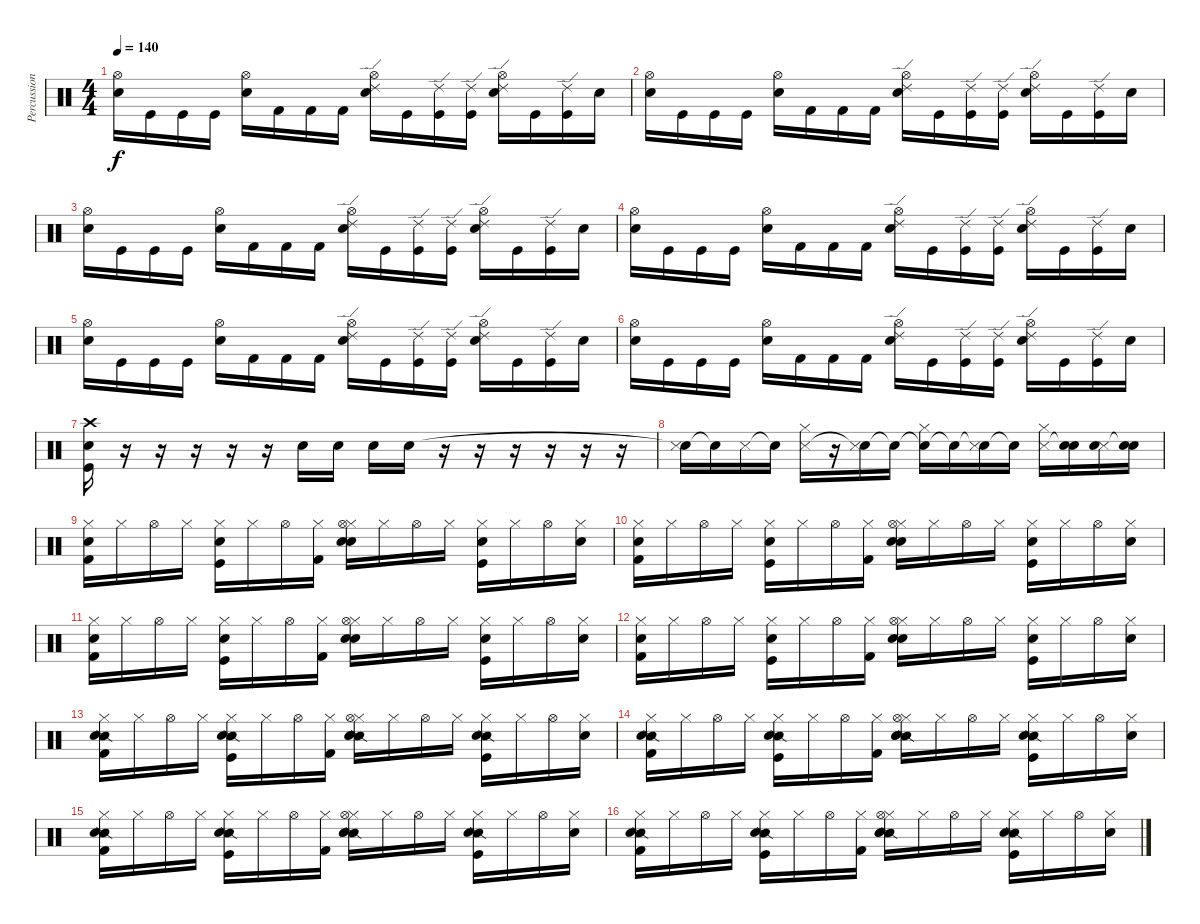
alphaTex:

\track ("Percussion" "Percussion") {instrument percussion}
\staff {score}
\articulation defaults
\ts (4 4)
\tempo 140
\clef neutral
\ks c
("Hi-Hat (open)" "Snare (hit) 2").16{dy f} "Kick (hit)".16 "Kick (hit)".16 "Kick (hit)".16 ("Hi-Hat (open)" "Snare (hit) 2").16 "Kick (hit) 2".16 "Kick (hit) 2".16 "Kick (hit) 2".16 ("Hi-Hat (open)" "Snare (hit) 2" "Ride (edge) 2").16 "Kick (hit)".16 ("Kick (hit)" "Ride (edge) 2").16 ("Kick (hit)" "Ride (edge) 2").16 ("Hi-Hat (open)" "Snare (hit) 2" "Ride (edge) 2").16 "Kick (hit)".16 ("Kick (hit)" "Ride (edge) 2").16 "Snare (hit) 2".16 |
("Hi-Hat (open)" "Snare (hit) 2").16 "Kick (hit)".16 "Kick (hit)".16 "Kick (hit)".16 ("Hi-Hat (open)" "Snare (hit) 2").16 "Kick (hit) 2".16 "Kick (hit) 2".16 "Kick (hit) 2".16 ("Hi-Hat (open)" "Snare (hit) 2" "Ride (edge) 2").16 "Kick (hit)".16 ("Kick (hit)" "Ride (edge) 2").16 ("Kick (hit)" "Ride (edge) 2").16 ("Hi-Hat (open)" "Snare (hit) 2" "Ride (edge) 2").16 "Kick (hit)".16 ("Kick (hit)" "Ride (edge) 2").16 "Snare (hit) 2".16 |
("Hi-Hat (open)" "Snare (hit) 2").16 "Kick (hit)".16 "Kick (hit)".16 "Kick (hit)".16 ("Hi-Hat (open)" "Snare (hit) 2").16 "Kick (hit) 2".16 "Kick (hit) 2".16 "Kick (hit) 2".16 ("Hi-Hat (open)" "Snare (hit) 2" "Ride (edge) 2").16 "Kick (hit)".16 ("Kick (hit)" "Ride (edge) 2").16 ("Kick (hit)" "Ride (edge) 2").16 ("Hi-Hat (open)" "Snare (hit) 2" "Ride (edge) 2").16 "Kick (hit)".16 ("Kick (hit)" "Ride (edge) 2").16 "Snare (hit) 2".16 |
("Hi-Hat (open)" "Snare (hit) 2").16 "Kick (hit)".16 "Kick (hit)".16 "Kick (hit)".16 ("Hi-Hat (open)" "Snare (hit) 2").16 "Kick (hit) 2".16 "Kick (hit) 2".16 "Kick (hit) 2".16 ("Hi-Hat (open)" "Snare (hit) 2" "Ride (edge) 2").16 "Kick (hit)".16 ("Kick (hit)" "Ride (edge) 2").16 ("Kick (hit)" "Ride (edge) 2").16 ("Hi-Hat (open)" "Snare (hit) 2" "Ride (edge) 2").16 "Kick (hit)".16 ("Kick (hit)" "Ride (edge) 2").16 "Snare (hit) 2".16 |
("Hi-Hat (open)" "Snare (hit) 2").16 "Kick (hit)".16 "Kick (hit)".16 "Kick (hit)".16 ("Hi-Hat (open)" "Snare (hit) 2").16 "Kick (hit) 2".16 "Kick (hit) 2".16 "Kick (hit) 2".16 ("Hi-Hat (open)" "Snare (hit) 2" "Ride (edge) 2").16 "Kick (hit)".16 ("Kick (hit)" "Ride (edge) 2").16 ("Kick (hit)" "Ride (edge) 2").16 ("Hi-Hat (open)" "Snare (hit) 2" "Ride (edge) 2").16 "Kick (hit)".16 ("Kick (hit)" "Ride (edge) 2").16 "Snare (hit) 2".16 |
("Hi-Hat (open)" "Snare (hit) 2").16 "Kick (hit)".16 "Kick (hit)".16 "Kick (hit)".16 ("Hi-Hat (open)" "Snare (hit) 2").16 "Kick (hit) 2".16 "Kick (hit) 2".16 "Kick (hit) 2".16 ("Hi-Hat (open)" "Snare (hit) 2" "Ride (edge) 2").16 "Kick (hit)".16 ("Kick (hit)" "Ride (edge) 2").16 ("Kick (hit)" "Ride (edge) 2").16 ("Hi-Hat (open)" "Snare (hit) 2" "Ride (edge) 2").16 "Kick (hit)".16 ("Kick (hit)" "Ride (edge) 2").16 "Snare (hit) 2".16 |
("Crash high (hit)" "Kick (hit)" "Snare (hit) 2").16 r.16 r.16 r.16 r.16 r.16 "Snare (hit) 2".16 "Snare (hit) 2".16 "Snare (hit) 2".16 "Snare (hit) 2".16 r.16 r.16 r.16 r.16 r.16 r.16 |
("Snare (hit)"{t} "Snare (side stick) 3").16 "Snare (hit)"{t}.16 "Snare (side stick) 3".16 "Snare (hit)"{t}.16 ("Snare (side stick) 3" "Hi-Hat (closed)").16 r.16 ("Snare (hit)"{t} "Snare (side stick) 3").16 "Snare (hit)"{t}.16 ("Snare (hit)"{t} "Hi-Hat (closed)").16 "Snare (hit)"{t}.16 ("Snare (hit)"{t} "Snare (side stick) 3").16 "Snare (hit)"{t}.16 ("Snare (side stick) 3" "Hi-Hat (closed)").16 ("Snare (hit)"{t} "Snare (hit) 2").16 ("Snare (side stick) 3" "Snare (hit) 2").16 ("Snare (hit)"{t} "Snare (hit) 2").16 |
("Hi-Hat (closed)" "Snare (hit)" "Kick (hit) 2").16 "Hi-Hat (closed)".16 "Hi-Hat (open)".16 "Hi-Hat (closed)".16 ("Hi-Hat (closed)" "Snare (hit) 2" "Kick (hit)").16 "Hi-Hat (closed)".16 "Hi-Hat (open)".16 ("Hi-Hat (closed)" "Kick (hit) 2").16 ("Hi-Hat (closed)" "Snare (hit) 2" "Snare (hit) 2" "Hi-Hat (open)").16 "Hi-Hat (closed)".16 "Hi-Hat (open)".16 "Hi-Hat (closed)".16 ("Hi-Hat (closed)" "Snare (hit) 2" "Kick (hit)").16 "Hi-Hat (closed)".16 "Hi-Hat (open)".16 ("Hi-Hat (closed)" "Snare (hit) 2").16 |
("Hi-Hat (closed)" "Snare (hit)" "Kick (hit) 2").16 "Hi-Hat (closed)".16 "Hi-Hat (open)".16 "Hi-Hat (closed)".16 ("Hi-Hat (closed)" "Snare (hit) 2" "Kick (hit)").16 "Hi-Hat (closed)".16 "Hi-Hat (open)".16 ("Hi-Hat (closed)" "Kick (hit) 2").16 ("Hi-Hat (closed)" "Snare (hit) 2" "Snare (hit) 2" "Hi-Hat (open)").16 "Hi-Hat (closed)".16 "Hi-Hat (open)".16 "Hi-Hat (closed)".16 ("Hi-Hat (closed)" "Snare (hit) 2" "Kick (hit)").16 "Hi-Hat (closed)".16 "Hi-Hat (open)".16 ("Hi-Hat (closed)" "Snare (hit) 2").16 |
("Hi-Hat (closed)" "Snare (hit)" "Kick (hit) 2").16 "Hi-Hat (closed)".16 "Hi-Hat (open)".16 "Hi-Hat (closed)".16 ("Hi-Hat (closed)" "Snare (hit) 2" "Kick (hit)").16 "Hi-Hat (closed)".16 "Hi-Hat (open)".16 ("Hi-Hat (closed)" "Kick (hit) 2").16 ("Hi-Hat (closed)" "Snare (hit) 2" "Snare (hit) 2" "Hi-Hat (open)").16 "Hi-Hat (closed)".16 "Hi-Hat (open)".16 "Hi-Hat (closed)".16 ("Hi-Hat (closed)" "Snare (hit) 2" "Kick (hit)").16 "Hi-Hat (closed)".16 "Hi-Hat (open)".16 ("Hi-Hat (closed)" "Snare (hit) 2").16 |
("Hi-Hat (closed)" "Snare (hit)" "Kick (hit) 2").16 "Hi-Hat (closed)".16 "Hi-Hat (open)".16 "Hi-Hat (closed)".16 ("Hi-Hat (closed)" "Snare (hit) 2" "Kick (hit)").16 "Hi-Hat (closed)".16 "Hi-Hat (open)".16 ("Hi-Hat (closed)" "Kick (hit) 2").16 ("Hi-Hat (closed)" "Snare (hit) 2" "Snare (hit) 2" "Hi-Hat (open)").16 "Hi-Hat (closed)".16 "Hi-Hat (open)".16 "Hi-Hat (closed)".16 ("Hi-Hat (closed)" "Snare (hit) 2" "Kick (hit)").16 "Hi-Hat (closed)".16 "Hi-Hat (open)".16 ("Hi-Hat (closed)" "Snare (hit) 2").16 |
("Hi-Hat (closed)" "Snare (side stick) 2" "Snare (hit)" "Kick (hit) 2").16 "Hi-Hat (closed)".16 "Hi-Hat (open)".16 "Hi-Hat (closed)".16 ("Hi-Hat (closed)" "Snare (side stick) 2" "Snare (hit) 2" "Kick (hit)").16 "Hi-Hat (closed)".16 "Hi-Hat (open)".16 ("Hi-Hat (closed)" "Kick (hit) 2").16 ("Hi-Hat (closed)" "Snare (side stick) 2" "Snare (hit) 2" "Snare (hit) 2" "Hi-Hat (open)").16 "Hi-Hat (closed)".16 "Hi-Hat (open)".16 "Hi-Hat (closed)".16 ("Hi-Hat (closed)" "Snare (side stick) 2" "Snare (hit) 2" "Kick (hit)").16 "Hi-Hat (closed)".16 "Hi-Hat (open)".16 ("Hi-Hat (closed)" "Snare (hit) 2").16 |
("Hi-Hat (closed)" "Snare (side stick) 2" "Snare (hit)" "Kick (hit) 2").16 "Hi-Hat (closed)".16 "Hi-Hat (open)".16 "Hi-Hat (closed)".16 ("Hi-Hat (closed)" "Snare (side stick) 2" "Snare (hit) 2" "Kick (hit)").16 "Hi-Hat (closed)".16 "Hi-Hat (open)".16 ("Hi-Hat (closed)" "Kick (hit) 2").16 ("Hi-Hat (closed)" "Snare (side stick) 2" "Snare (hit) 2" "Snare (hit) 2" "Hi-Hat (open)").16 "Hi-Hat (closed)".16 "Hi-Hat (open)".16 "Hi-Hat (closed)".16 ("Hi-Hat (closed)" "Snare (side stick) 2" "Snare (hit) 2" "Kick (hit)").16 "Hi-Hat (closed)".16 "Hi-Hat (open)".16 ("Hi-Hat (closed)" "Snare (hit) 2").16 |
("Hi-Hat (closed)" "Snare (side stick) 2" "Snare (hit)" "Kick (hit) 2").16 "Hi-Hat (closed)".16 "Hi-Hat (open)".16 "Hi-Hat (closed)".16 ("Hi-Hat (closed)" "Snare (side stick) 2" "Snare (hit) 2" "Kick (hit)").16 "Hi-Hat (closed)".16 "Hi-Hat (open)".16 ("Hi-Hat (closed)" "Kick (hit) 2").16 ("Hi-Hat (closed)" "Snare (side stick) 2" "Snare (hit) 2" "Snare (hit) 2" "Hi-Hat (open)").16 "Hi-Hat (closed)".16 "Hi-Hat (open)".16 "Hi-Hat (closed)".16 ("Hi-Hat (closed)" "Snare (side stick) 2" "Snare (hit) 2" "Kick (hit)").16 "Hi-Hat (closed)".16 "Hi-Hat (open)".16 ("Hi-Hat (closed)" "Snare (hit) 2").16 |
("Hi-Hat (closed)" "Snare (side stick) 2" "Snare (hit)" "Kick (hit) 2").16 "Hi-Hat (closed)".16 "Hi-Hat (open)".16 "Hi-Hat (closed)".16 ("Hi-Hat (closed)" "Snare (side stick) 2" "Snare (hit) 2" "Kick (hit)").16 "Hi-Hat (closed)".16 "Hi-Hat (open)".16 ("Hi-Hat (closed)" "Kick (hit) 2").16 ("Hi-Hat (closed)" "Snare (side stick) 2" "Snare (hit) 2" "Snare (hit) 2" "Hi-Hat (open)").16 "Hi-Hat (closed)".16 "Hi-Hat (open)".16 "Hi-Hat (closed)".16 ("Hi-Hat (closed)" "Snare (side stick) 2" "Snare (hit) 2" "Kick (hit)").16 "Hi-Hat (closed)".16 "Hi-Hat (open)".16 ("Hi-Hat (closed)" "Snare (hit) 2").16
